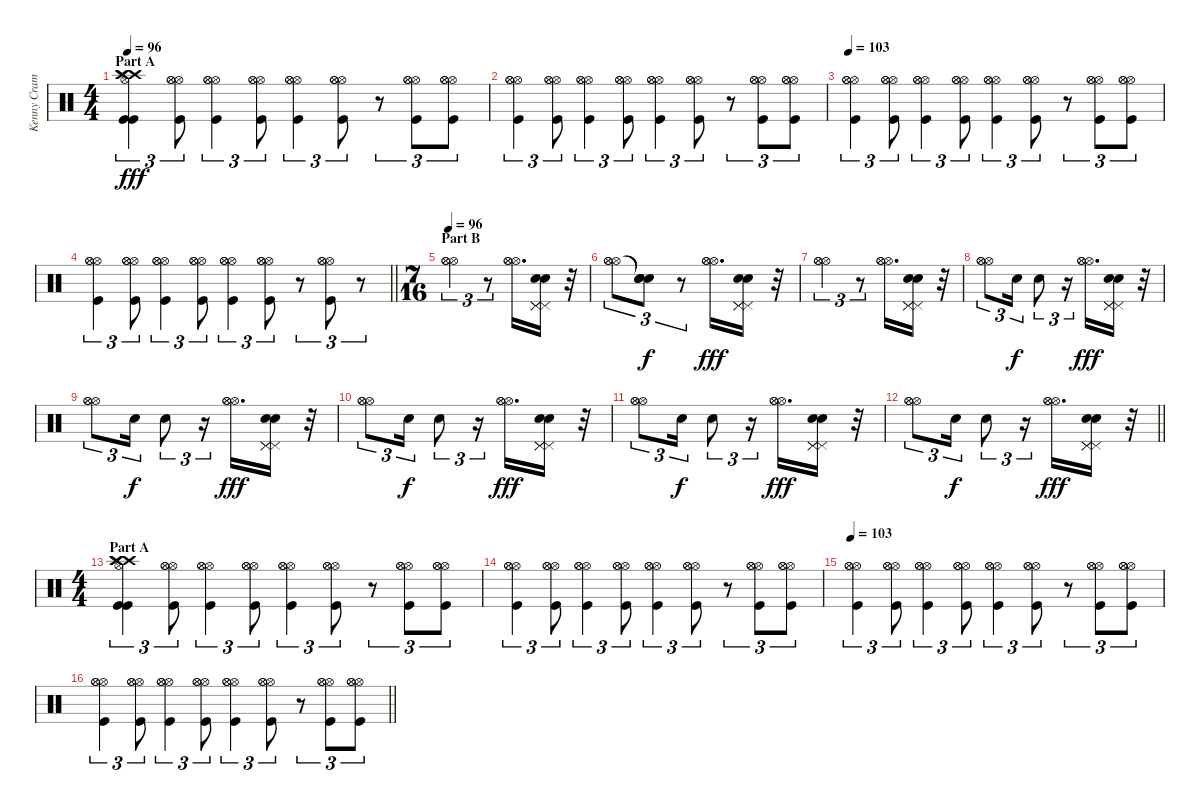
\track ("Kenny Cramme" "Kenny Cram") {instrument percussion}
\staff {score}
\articulation defaults
\ts (4 4)
\section ("" "Part A")
\tempo 96
\clef neutral
\ks c
("Kick (hit)" "Kick (hit)" "Hi-Hat (open)" "Crash high (hit)" "Crash high (hit)" "Crash high (hit)").4{tu (3 2) dy fff} ("Kick (hit)" "Hi-Hat (open)" "Hi-Hat (open)" "Hi-Hat (open)").8{tu (3 2)} ("Kick (hit)" "Hi-Hat (open)" "Hi-Hat (open)" "Hi-Hat (open)").4{tu (3 2)} ("Kick (hit)" "Hi-Hat (open)" "Hi-Hat (open)" "Hi-Hat (open)").8{tu (3 2)} ("Kick (hit)" "Hi-Hat (open)" "Hi-Hat (open)" "Hi-Hat (open)").4{tu (3 2)} ("Kick (hit)" "Hi-Hat (open)" "Hi-Hat (open)" "Hi-Hat (open)").8{tu (3 2)} r.8{tu (3 2)} ("Kick (hit)" "Hi-Hat (open)" "Hi-Hat (open)" "Hi-Hat (open)").8{tu (3 2)} ("Kick (hit)" "Hi-Hat (open)" "Hi-Hat (open)" "Hi-Hat (open)").8{tu (3 2)} |
("Kick (hit)" "Hi-Hat (open)" "Hi-Hat (open)" "Hi-Hat (open)").4{tu (3 2)} ("Kick (hit)" "Hi-Hat (open)" "Hi-Hat (open)" "Hi-Hat (open)").8{tu (3 2)} ("Kick (hit)" "Hi-Hat (open)" "Hi-Hat (open)" "Hi-Hat (open)").4{tu (3 2)} ("Kick (hit)" "Hi-Hat (open)" "Hi-Hat (open)" "Hi-Hat (open)").8{tu (3 2)} ("Kick (hit)" "Hi-Hat (open)" "Hi-Hat (open)" "Hi-Hat (open)").4{tu (3 2)} ("Kick (hit)" "Hi-Hat (open)" "Hi-Hat (open)" "Hi-Hat (open)").8{tu (3 2)} r.8{tu (3 2)} ("Kick (hit)" "Hi-Hat (open)" "Hi-Hat (open)" "Hi-Hat (open)").8{tu (3 2)} ("Kick (hit)" "Hi-Hat (open)" "Hi-Hat (open)" "Hi-Hat (open)").8{tu (3 2)} |
\tempo 103
("Kick (hit)" "Hi-Hat (open)" "Hi-Hat (open)" "Hi-Hat (open)").4{tu (3 2)} ("Kick (hit)" "Hi-Hat (open)" "Hi-Hat (open)" "Hi-Hat (open)").8{tu (3 2)} ("Kick (hit)" "Hi-Hat (open)" "Hi-Hat (open)" "Hi-Hat (open)").4{tu (3 2)} ("Kick (hit)" "Hi-Hat (open)" "Hi-Hat (open)" "Hi-Hat (open)").8{tu (3 2)} ("Kick (hit)" "Hi-Hat (open)" "Hi-Hat (open)" "Hi-Hat (open)").4{tu (3 2)} ("Kick (hit)" "Hi-Hat (open)" "Hi-Hat (open)" "Hi-Hat (open)").8{tu (3 2)} r.8{tu (3 2)} ("Kick (hit)" "Hi-Hat (open)" "Hi-Hat (open)" "Hi-Hat (open)").8{tu (3 2)} ("Kick (hit)" "Hi-Hat (open)" "Hi-Hat (open)" "Hi-Hat (open)").8{tu (3 2)} |
\barLineRight lightlight
("Kick (hit)" "Hi-Hat (open)" "Hi-Hat (open)" "Hi-Hat (open)").4{tu (3 2)} ("Kick (hit)" "Hi-Hat (open)" "Hi-Hat (open)" "Hi-Hat (open)").8{tu (3 2)} ("Kick (hit)" "Hi-Hat (open)" "Hi-Hat (open)" "Hi-Hat (open)").4{tu (3 2)} ("Kick (hit)" "Hi-Hat (open)" "Hi-Hat (open)" "Hi-Hat (open)").8{tu (3 2)} ("Kick (hit)" "Hi-Hat (open)" "Hi-Hat (open)" "Hi-Hat (open)").4{tu (3 2)} ("Kick (hit)" "Hi-Hat (open)" "Hi-Hat (open)" "Hi-Hat (open)").8{tu (3 2)} r.8{tu (3 2)} ("Kick (hit)" "Hi-Hat (open)" "Hi-Hat (open)" "Hi-Hat (open)").8{tu (3 2)} r.8{tu (3 2)} |
\ts (7 16)
\section ("" "Part B")
\tempo 96
("Hi-Hat (open)" "Hi-Hat (open)" "Hi-Hat (open)").4{tu (3 2)} r.8{tu (3 2)} ("Hi-Hat (open)" "Hi-Hat (open)" "Hi-Hat (open)").16{d} ("Pedal Hi-Hat (hit)" "Pedal Hi-Hat (hit)" "Pedal Hi-Hat (hit)" "Snare (hit) 2" "Snare (hit) 2").16 r.32 |
("Hi-Hat (open)" "Hi-Hat (open)" "Hi-Hat (open)").8{tu (3 2)} ("Snare (hit)"{t} "Snare (hit)"{t} "Snare (hit)"{t}).8{tu (3 2) dy f} r.8{tu (3 2)} ("Hi-Hat (open)" "Hi-Hat (open)" "Hi-Hat (open)").16{d dy fff} ("Pedal Hi-Hat (hit)" "Pedal Hi-Hat (hit)" "Pedal Hi-Hat (hit)" "Snare (hit) 2" "Snare (hit) 2").16 r.32 |
("Hi-Hat (open)" "Hi-Hat (open)" "Hi-Hat (open)").4{tu (3 2)} r.8{tu (3 2)} ("Hi-Hat (open)" "Hi-Hat (open)" "Hi-Hat (open)").16{d} ("Pedal Hi-Hat (hit)" "Pedal Hi-Hat (hit)" "Pedal Hi-Hat (hit)" "Snare (hit) 2" "Snare (hit) 2").16 r.32 |
("Hi-Hat (open)" "Hi-Hat (open)" "Hi-Hat (open)").8{tu (3 2)} "Snare (hit) 2".16{tu (3 2) dy f} "Snare (hit) 2".8{tu (3 2)} r.16{tu (3 2)} ("Hi-Hat (open)" "Hi-Hat (open)" "Hi-Hat (open)").16{d dy fff} ("Pedal Hi-Hat (hit)" "Pedal Hi-Hat (hit)" "Pedal Hi-Hat (hit)" "Snare (hit) 2" "Snare (hit) 2").16 r.32 |
("Hi-Hat (open)" "Hi-Hat (open)" "Hi-Hat (open)").8{tu (3 2)} "Snare (hit) 2".16{tu (3 2) dy f} "Snare (hit) 2".8{tu (3 2)} r.16{tu (3 2)} ("Hi-Hat (open)" "Hi-Hat (open)" "Hi-Hat (open)").16{d dy fff} ("Pedal Hi-Hat (hit)" "Pedal Hi-Hat (hit)" "Pedal Hi-Hat (hit)" "Snare (hit) 2" "Snare (hit) 2").16 r.32 |
("Hi-Hat (open)" "Hi-Hat (open)" "Hi-Hat (open)").8{tu (3 2)} "Snare (hit) 2".16{tu (3 2) dy f} "Snare (hit) 2".8{tu (3 2)} r.16{tu (3 2)} ("Hi-Hat (open)" "Hi-Hat (open)" "Hi-Hat (open)").16{d dy fff} ("Pedal Hi-Hat (hit)" "Pedal Hi-Hat (hit)" "Pedal Hi-Hat (hit)" "Snare (hit) 2" "Snare (hit) 2").16 r.32 |
("Hi-Hat (open)" "Hi-Hat (open)" "Hi-Hat (open)").8{tu (3 2)} "Snare (hit) 2".16{tu (3 2) dy f} "Snare (hit) 2".8{tu (3 2)} r.16{tu (3 2)} ("Hi-Hat (open)" "Hi-Hat (open)" "Hi-Hat (open)").16{d dy fff} ("Pedal Hi-Hat (hit)" "Pedal Hi-Hat (hit)" "Pedal Hi-Hat (hit)" "Snare (hit) 2" "Snare (hit) 2").16 r.32 |
\barLineRight lightlight
("Hi-Hat (open)" "Hi-Hat (open)" "Hi-Hat (open)").8{tu (3 2)} "Snare (hit) 2".16{tu (3 2) dy f} "Snare (hit) 2".8{tu (3 2)} r.16{tu (3 2)} ("Hi-Hat (open)" "Hi-Hat (open)" "Hi-Hat (open)").16{d dy fff} ("Pedal Hi-Hat (hit)" "Pedal Hi-Hat (hit)" "Pedal Hi-Hat (hit)" "Snare (hit) 2" "Snare (hit) 2").16 r.32 |
\ts (4 4)
\section ("" "Part A")
("Kick (hit)" "Kick (hit)" "Hi-Hat (open)" "Crash high (hit)" "Crash high (hit)" "Crash high (hit)").4{tu (3 2)} ("Kick (hit)" "Hi-Hat (open)" "Hi-Hat (open)" "Hi-Hat (open)").8{tu (3 2)} ("Kick (hit)" "Hi-Hat (open)" "Hi-Hat (open)" "Hi-Hat (open)").4{tu (3 2)} ("Kick (hit)" "Hi-Hat (open)" "Hi-Hat (open)" "Hi-Hat (open)").8{tu (3 2)} ("Kick (hit)" "Hi-Hat (open)" "Hi-Hat (open)" "Hi-Hat (open)").4{tu (3 2)} ("Kick (hit)" "Hi-Hat (open)" "Hi-Hat (open)" "Hi-Hat (open)").8{tu (3 2)} r.8{tu (3 2)} ("Kick (hit)" "Hi-Hat (open)" "Hi-Hat (open)" "Hi-Hat (open)").8{tu (3 2)} ("Kick (hit)" "Hi-Hat (open)" "Hi-Hat (open)" "Hi-Hat (open)").8{tu (3 2)} |
("Kick (hit)" "Hi-Hat (open)" "Hi-Hat (open)" "Hi-Hat (open)").4{tu (3 2)} ("Kick (hit)" "Hi-Hat (open)" "Hi-Hat (open)" "Hi-Hat (open)").8{tu (3 2)} ("Kick (hit)" "Hi-Hat (open)" "Hi-Hat (open)" "Hi-Hat (open)").4{tu (3 2)} ("Kick (hit)" "Hi-Hat (open)" "Hi-Hat (open)" "Hi-Hat (open)").8{tu (3 2)} ("Kick (hit)" "Hi-Hat (open)" "Hi-Hat (open)" "Hi-Hat (open)").4{tu (3 2)} ("Kick (hit)" "Hi-Hat (open)" "Hi-Hat (open)" "Hi-Hat (open)").8{tu (3 2)} r.8{tu (3 2)} ("Kick (hit)" "Hi-Hat (open)" "Hi-Hat (open)" "Hi-Hat (open)").8{tu (3 2)} ("Kick (hit)" "Hi-Hat (open)" "Hi-Hat (open)" "Hi-Hat (open)").8{tu (3 2)} |
\tempo 103
("Kick (hit)" "Hi-Hat (open)" "Hi-Hat (open)" "Hi-Hat (open)").4{tu (3 2)} ("Kick (hit)" "Hi-Hat (open)" "Hi-Hat (open)" "Hi-Hat (open)").8{tu (3 2)} ("Kick (hit)" "Hi-Hat (open)" "Hi-Hat (open)" "Hi-Hat (open)").4{tu (3 2)} ("Kick (hit)" "Hi-Hat (open)" "Hi-Hat (open)" "Hi-Hat (open)").8{tu (3 2)} ("Kick (hit)" "Hi-Hat (open)" "Hi-Hat (open)" "Hi-Hat (open)").4{tu (3 2)} ("Kick (hit)" "Hi-Hat (open)" "Hi-Hat (open)" "Hi-Hat (open)").8{tu (3 2)} r.8{tu (3 2)} ("Kick (hit)" "Hi-Hat (open)" "Hi-Hat (open)" "Hi-Hat (open)").8{tu (3 2)} ("Kick (hit)" "Hi-Hat (open)" "Hi-Hat (open)" "Hi-Hat (open)").8{tu (3 2)} |
\barLineRight lightlight
("Kick (hit)" "Hi-Hat (open)" "Hi-Hat (open)" "Hi-Hat (open)").4{tu (3 2)} ("Kick (hit)" "Hi-Hat (open)" "Hi-Hat (open)" "Hi-Hat (open)").8{tu (3 2)} ("Kick (hit)" "Hi-Hat (open)" "Hi-Hat (open)" "Hi-Hat (open)").4{tu (3 2)} ("Kick (hit)" "Hi-Hat (open)" "Hi-Hat (open)" "Hi-Hat (open)").8{tu (3 2)} ("Kick (hit)" "Hi-Hat (open)" "Hi-Hat (open)" "Hi-Hat (open)").4{tu (3 2)} ("Kick (hit)" "Hi-Hat (open)" "Hi-Hat (open)" "Hi-Hat (open)").8{tu (3 2)} r.8{tu (3 2)} ("Kick (hit)" "Hi-Hat (open)" "Hi-Hat (open)" "Hi-Hat (open)").8{tu (3 2)} ("Kick (hit)" "Hi-Hat (open)" "Hi-Hat (open)" "Hi-Hat (open)").8{tu (3 2)}
